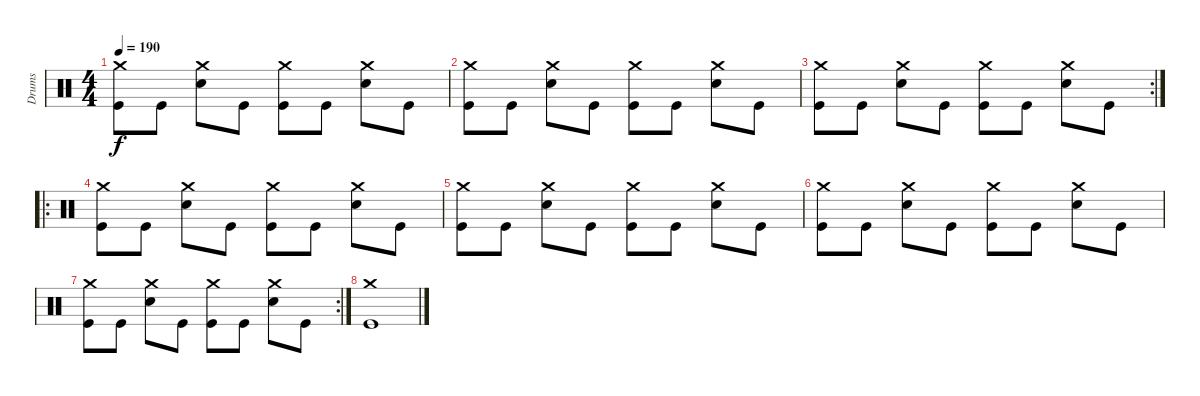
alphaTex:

\track ("Drums" "Drums") {instrument percussion}
\staff {score}
\articulation defaults
\ts (4 4)
\tempo 190
\clef neutral
\ks c
("Crash medium (hit)" "Kick (hit)").8{dy f} "Kick (hit)".8 ("Crash medium (hit)" "Snare (hit) 2").8 "Kick (hit)".8 ("Crash medium (hit)" "Kick (hit)").8 "Kick (hit)".8 ("Crash medium (hit)" "Snare (hit) 2").8 "Kick (hit)".8 |
("Crash medium (hit)" "Kick (hit)").8 "Kick (hit)".8 ("Crash medium (hit)" "Snare (hit) 2").8 "Kick (hit)".8 ("Crash medium (hit)" "Kick (hit)").8 "Kick (hit)".8 ("Crash medium (hit)" "Snare (hit) 2").8 "Kick (hit)".8 |
\rc 2
("Crash medium (hit)" "Kick (hit)").8 "Kick (hit)".8 ("Crash medium (hit)" "Snare (hit) 2").8 "Kick (hit)".8 ("Crash medium (hit)" "Kick (hit)").8 "Kick (hit)".8 ("Crash medium (hit)" "Snare (hit) 2").8 "Kick (hit)".8 |
\ro
("Crash medium (hit)" "Kick (hit)").8 "Kick (hit)".8 ("Crash medium (hit)" "Snare (hit) 2").8 "Kick (hit)".8 ("Crash medium (hit)" "Kick (hit)").8 "Kick (hit)".8 ("Crash medium (hit)" "Snare (hit) 2").8 "Kick (hit)".8 |
("Crash medium (hit)" "Kick (hit)").8 "Kick (hit)".8 ("Crash medium (hit)" "Snare (hit) 2").8 "Kick (hit)".8 ("Crash medium (hit)" "Kick (hit)").8 "Kick (hit)".8 ("Crash medium (hit)" "Snare (hit) 2").8 "Kick (hit)".8 |
("Crash medium (hit)" "Kick (hit)").8 "Kick (hit)".8 ("Crash medium (hit)" "Snare (hit) 2").8 "Kick (hit)".8 ("Crash medium (hit)" "Kick (hit)").8 "Kick (hit)".8 ("Crash medium (hit)" "Snare (hit) 2").8 "Kick (hit)".8 |
\rc 2
("Crash medium (hit)" "Kick (hit)").8 "Kick (hit)".8 ("Crash medium (hit)" "Snare (hit) 2").8 "Kick (hit)".8 ("Crash medium (hit)" "Kick (hit)").8 "Kick (hit)".8 ("Crash medium (hit)" "Snare (hit) 2").8 "Kick (hit)".8 |
("Crash medium (hit)" "Kick (hit)").1
